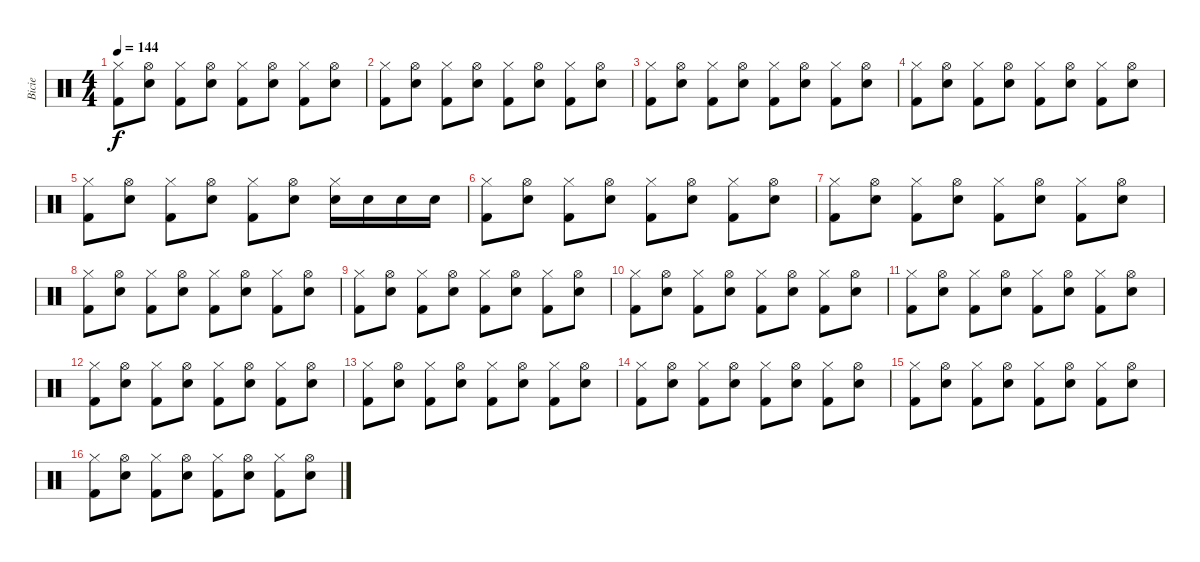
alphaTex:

\track ("Bicie" "Bicie") {instrument percussion}
\staff {score}
\articulation defaults
\ts (4 4)
\tempo 144
\clef neutral
\ks c
("Hi-Hat (closed)" "Kick (hit) 2").8{dy f} ("Hi-Hat (open)" "Electric Snare (hit)").8 ("Hi-Hat (closed)" "Kick (hit) 2").8 ("Hi-Hat (open)" "Electric Snare (hit)").8 ("Hi-Hat (closed)" "Kick (hit) 2").8 ("Hi-Hat (open)" "Electric Snare (hit)").8 ("Hi-Hat (closed)" "Kick (hit) 2").8 ("Hi-Hat (open)" "Electric Snare (hit)").8 |
("Hi-Hat (closed)" "Kick (hit) 2").8 ("Hi-Hat (open)" "Electric Snare (hit)").8 ("Hi-Hat (closed)" "Kick (hit) 2").8 ("Hi-Hat (open)" "Electric Snare (hit)").8 ("Hi-Hat (closed)" "Kick (hit) 2").8 ("Hi-Hat (open)" "Electric Snare (hit)").8 ("Hi-Hat (closed)" "Kick (hit) 2").8 ("Hi-Hat (open)" "Electric Snare (hit)").8 |
("Hi-Hat (closed)" "Kick (hit) 2").8 ("Hi-Hat (open)" "Electric Snare (hit)").8 ("Hi-Hat (closed)" "Kick (hit) 2").8 ("Hi-Hat (open)" "Electric Snare (hit)").8 ("Hi-Hat (closed)" "Kick (hit) 2").8 ("Hi-Hat (open)" "Electric Snare (hit)").8 ("Hi-Hat (closed)" "Kick (hit) 2").8 ("Hi-Hat (open)" "Electric Snare (hit)").8 |
("Hi-Hat (closed)" "Kick (hit) 2").8 ("Hi-Hat (open)" "Electric Snare (hit)").8 ("Hi-Hat (closed)" "Kick (hit) 2").8 ("Hi-Hat (open)" "Electric Snare (hit)").8 ("Hi-Hat (closed)" "Kick (hit) 2").8 ("Hi-Hat (open)" "Electric Snare (hit)").8 ("Hi-Hat (closed)" "Kick (hit) 2").8 ("Hi-Hat (open)" "Electric Snare (hit)").8 |
("Hi-Hat (closed)" "Kick (hit) 2").8 ("Hi-Hat (open)" "Electric Snare (hit)").8 ("Hi-Hat (closed)" "Kick (hit) 2").8 ("Hi-Hat (open)" "Electric Snare (hit)").8 ("Hi-Hat (closed)" "Kick (hit) 2").8 ("Hi-Hat (open)" "Electric Snare (hit)").8 ("Hi-Hat (closed)" "Electric Snare (hit)").16 "Electric Snare (hit)".16 "Electric Snare (hit)".16 "Electric Snare (hit)".16 |
("Hi-Hat (closed)" "Kick (hit) 2").8 ("Hi-Hat (open)" "Electric Snare (hit)").8 ("Hi-Hat (closed)" "Kick (hit) 2").8 ("Hi-Hat (open)" "Electric Snare (hit)").8 ("Hi-Hat (closed)" "Kick (hit) 2").8 ("Hi-Hat (open)" "Electric Snare (hit)").8 ("Hi-Hat (closed)" "Kick (hit) 2").8 ("Hi-Hat (open)" "Electric Snare (hit)").8 |
("Hi-Hat (closed)" "Kick (hit) 2").8 ("Hi-Hat (open)" "Electric Snare (hit)").8 ("Hi-Hat (closed)" "Kick (hit) 2").8 ("Hi-Hat (open)" "Electric Snare (hit)").8 ("Hi-Hat (closed)" "Kick (hit) 2").8 ("Hi-Hat (open)" "Electric Snare (hit)").8 ("Hi-Hat (closed)" "Kick (hit) 2").8 ("Hi-Hat (open)" "Electric Snare (hit)").8 |
("Hi-Hat (closed)" "Kick (hit) 2").8 ("Hi-Hat (open)" "Electric Snare (hit)").8 ("Hi-Hat (closed)" "Kick (hit) 2").8 ("Hi-Hat (open)" "Electric Snare (hit)").8 ("Hi-Hat (closed)" "Kick (hit) 2").8 ("Hi-Hat (open)" "Electric Snare (hit)").8 ("Hi-Hat (closed)" "Kick (hit) 2").8 ("Hi-Hat (open)" "Electric Snare (hit)").8 |
("Hi-Hat (closed)" "Kick (hit) 2").8 ("Hi-Hat (open)" "Electric Snare (hit)").8 ("Hi-Hat (closed)" "Kick (hit) 2").8 ("Hi-Hat (open)" "Electric Snare (hit)").8 ("Hi-Hat (closed)" "Kick (hit) 2").8 ("Hi-Hat (open)" "Electric Snare (hit)").8 ("Hi-Hat (closed)" "Kick (hit) 2").8 ("Hi-Hat (open)" "Electric Snare (hit)").8 |
("Hi-Hat (closed)" "Kick (hit) 2").8 ("Hi-Hat (open)" "Electric Snare (hit)").8 ("Hi-Hat (closed)" "Kick (hit) 2").8 ("Hi-Hat (open)" "Electric Snare (hit)").8 ("Hi-Hat (closed)" "Kick (hit) 2").8 ("Hi-Hat (open)" "Electric Snare (hit)").8 ("Hi-Hat (closed)" "Kick (hit) 2").8 ("Hi-Hat (open)" "Electric Snare (hit)").8 |
("Hi-Hat (closed)" "Kick (hit) 2").8 ("Hi-Hat (open)" "Electric Snare (hit)").8 ("Hi-Hat (closed)" "Kick (hit) 2").8 ("Hi-Hat (open)" "Electric Snare (hit)").8 ("Hi-Hat (closed)" "Kick (hit) 2").8 ("Hi-Hat (open)" "Electric Snare (hit)").8 ("Hi-Hat (closed)" "Kick (hit) 2").8 ("Hi-Hat (open)" "Electric Snare (hit)").8 |
("Hi-Hat (closed)" "Kick (hit) 2").8 ("Hi-Hat (open)" "Electric Snare (hit)").8 ("Hi-Hat (closed)" "Kick (hit) 2").8 ("Hi-Hat (open)" "Electric Snare (hit)").8 ("Hi-Hat (closed)" "Kick (hit) 2").8 ("Hi-Hat (open)" "Electric Snare (hit)").8 ("Hi-Hat (closed)" "Kick (hit) 2").8 ("Hi-Hat (open)" "Electric Snare (hit)").8 |
("Hi-Hat (closed)" "Kick (hit) 2").8 ("Hi-Hat (open)" "Electric Snare (hit)").8 ("Hi-Hat (closed)" "Kick (hit) 2").8 ("Hi-Hat (open)" "Electric Snare (hit)").8 ("Hi-Hat (closed)" "Kick (hit) 2").8 ("Hi-Hat (open)" "Electric Snare (hit)").8 ("Hi-Hat (closed)" "Kick (hit) 2").8 ("Hi-Hat (open)" "Electric Snare (hit)").8 |
("Hi-Hat (closed)" "Kick (hit) 2").8 ("Hi-Hat (open)" "Electric Snare (hit)").8 ("Hi-Hat (closed)" "Kick (hit) 2").8 ("Hi-Hat (open)" "Electric Snare (hit)").8 ("Hi-Hat (closed)" "Kick (hit) 2").8 ("Hi-Hat (open)" "Electric Snare (hit)").8 ("Hi-Hat (closed)" "Kick (hit) 2").8 ("Hi-Hat (open)" "Electric Snare (hit)").8 |
("Hi-Hat (closed)" "Kick (hit) 2").8 ("Hi-Hat (open)" "Electric Snare (hit)").8 ("Hi-Hat (closed)" "Kick (hit) 2").8 ("Hi-Hat (open)" "Electric Snare (hit)").8 ("Hi-Hat (closed)" "Kick (hit) 2").8 ("Hi-Hat (open)" "Electric Snare (hit)").8 ("Hi-Hat (closed)" "Kick (hit) 2").8 ("Hi-Hat (open)" "Electric Snare (hit)").8 |
("Hi-Hat (closed)" "Kick (hit) 2").8 ("Hi-Hat (open)" "Electric Snare (hit)").8 ("Hi-Hat (closed)" "Kick (hit) 2").8 ("Hi-Hat (open)" "Electric Snare (hit)").8 ("Hi-Hat (closed)" "Kick (hit) 2").8 ("Hi-Hat (open)" "Electric Snare (hit)").8 ("Hi-Hat (closed)" "Kick (hit) 2").8 ("Hi-Hat (open)" "Electric Snare (hit)").8
